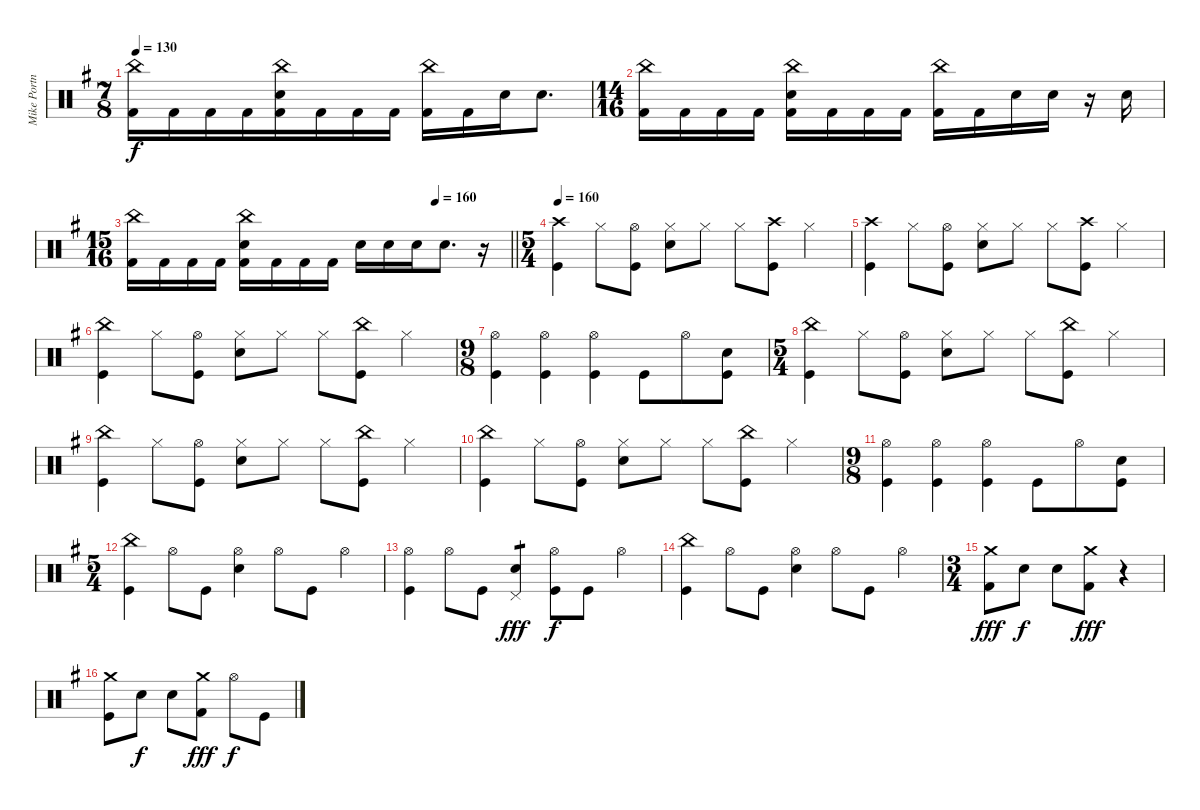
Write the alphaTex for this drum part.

\track ("Mike Portnoy - Drums" "Mike Portn") {instrument percussion}
\staff {score}
\articulation defaults
\ts (7 8)
\tempo 130
\clef neutral
\ks g
("China (hit)" "Kick (hit) 2").16{dy f} "Kick (hit) 2".16 "Kick (hit) 2".16 "Kick (hit) 2".16 ("China (hit)" "Electric Snare (hit)" "Kick (hit) 2").16 "Kick (hit) 2".16 "Kick (hit) 2".16 "Kick (hit) 2".16 ("China (hit)" "Kick (hit) 2").16 "Kick (hit) 2".16 "Electric Snare (hit)".16 "Electric Snare (hit)".8{d} |
\ts (14 16)
("China (hit)" "Kick (hit) 2").16 "Kick (hit) 2".16 "Kick (hit) 2".16 "Kick (hit) 2".16 ("China (hit)" "Electric Snare (hit)" "Kick (hit) 2").16 "Kick (hit) 2".16 "Kick (hit) 2".16 "Kick (hit) 2".16 ("China (hit)" "Kick (hit) 2").16 "Kick (hit) 2".16 "Electric Snare (hit)".16 "Electric Snare (hit)".16 r.16 "Electric Snare (hit)".16 |
\ts (15 16)
\tempo (160 0.8)
\barLineRight lightlight
("China (hit)" "Kick (hit) 2").16 "Kick (hit) 2".16 "Kick (hit) 2".16 "Kick (hit) 2".16 ("China (hit)" "Electric Snare (hit)" "Kick (hit) 2").16 "Kick (hit) 2".16 "Kick (hit) 2".16 "Kick (hit) 2".16 "Electric Snare (hit)".16 "Electric Snare (hit)".16 "Electric Snare (hit)".16 "Electric Snare (hit)".8{d} r.16 |
\ts (5 4)
\tempo 160
("Kick (hit)" "Crash high (hit)").4 "Hi-Hat (closed)".8 ("Kick (hit)" "Hi-Hat (open)").8 ("Snare (hit) 2" "Hi-Hat (closed)").8 "Hi-Hat (closed)".8 "Hi-Hat (closed)".8 ("Kick (hit)" "Crash high (hit)").8 "Hi-Hat (closed)".4 |
("Kick (hit)" "Crash high (hit)").4 "Hi-Hat (closed)".8 ("Kick (hit)" "Hi-Hat (open)").8 ("Snare (hit) 2" "Hi-Hat (closed)").8 "Hi-Hat (closed)".8 "Hi-Hat (closed)".8 ("Kick (hit)" "Crash high (hit)").8 "Hi-Hat (closed)".4 |
("Kick (hit)" "China (hit)").4 "Hi-Hat (closed)".8 ("Kick (hit)" "Hi-Hat (open)").8 ("Snare (hit) 2" "Hi-Hat (closed)").8 "Hi-Hat (closed)".8 "Hi-Hat (closed)".8 ("Kick (hit)" "China (hit)").8 "Hi-Hat (closed)".4 |
\ts (9 8)
("Kick (hit)" "Hi-Hat (open)").4 ("Kick (hit)" "Hi-Hat (open)").4 ("Kick (hit)" "Hi-Hat (open)").4 "Kick (hit)".8 "Hi-Hat (open)".8 ("Kick (hit)" "Snare (hit) 2").8 |
\ts (5 4)
("Kick (hit)" "China (hit)").4 "Hi-Hat (closed)".8 ("Kick (hit)" "Hi-Hat (open)").8 ("Snare (hit) 2" "Hi-Hat (closed)").8 "Hi-Hat (closed)".8 "Hi-Hat (closed)".8 ("Kick (hit)" "China (hit)").8 "Hi-Hat (closed)".4 |
("Kick (hit)" "China (hit)").4 "Hi-Hat (closed)".8 ("Kick (hit)" "Hi-Hat (open)").8 ("Snare (hit) 2" "Hi-Hat (closed)").8 "Hi-Hat (closed)".8 "Hi-Hat (closed)".8 ("Kick (hit)" "China (hit)").8 "Hi-Hat (closed)".4 |
("Kick (hit)" "China (hit)").4 "Hi-Hat (closed)".8 ("Kick (hit)" "Hi-Hat (open)").8 ("Snare (hit) 2" "Hi-Hat (closed)").8 "Hi-Hat (closed)".8 "Hi-Hat (closed)".8 ("Kick (hit)" "China (hit)").8 "Hi-Hat (closed)".4 |
\ts (9 8)
("Kick (hit)" "Hi-Hat (open)").4 ("Kick (hit)" "Hi-Hat (open)").4 ("Kick (hit)" "Hi-Hat (open)").4 "Kick (hit)".8 "Hi-Hat (open)".8 ("Kick (hit)" "Snare (hit) 2").8 |
\ts (5 4)
("Kick (hit)" "China (hit)").4 "Hi-Hat (open)".8 "Kick (hit)".8 ("Snare (hit) 2" "Hi-Hat (open)").4 "Hi-Hat (open)".8 "Kick (hit)".8 "Hi-Hat (open)".4 |
("Kick (hit)" "Hi-Hat (open)").4 "Hi-Hat (open)".8 "Kick (hit)".8 ("Pedal Hi-Hat (hit)" "Electric Snare (hit)").4{tp 1 dy fff} ("Kick (hit)" "Hi-Hat (open)").8{dy f} "Kick (hit)".8 "Hi-Hat (open)".4 |
("Kick (hit)" "China (hit)").4 "Hi-Hat (open)".8 "Kick (hit)".8 ("Snare (hit) 2" "Hi-Hat (open)").4 "Hi-Hat (open)".8 "Kick (hit)".8 "Hi-Hat (open)".4 |
\ts (3 4)
("Crash medium (hit)" "Kick (hit) 2").8{dy fff} "Electric Snare (hit)".8{dy f} "Electric Snare (hit)".8 ("Crash medium (hit)" "Kick (hit) 2").8{dy fff} r.4 |
("Kick (hit)" "Crash medium (hit)").8 "Electric Snare (hit)".8{dy f} "Electric Snare (hit)".8 ("Kick (hit) 2" "Crash medium (hit)").8{dy fff} "Hi-Hat (open)".8{dy f} "Kick (hit)".8
